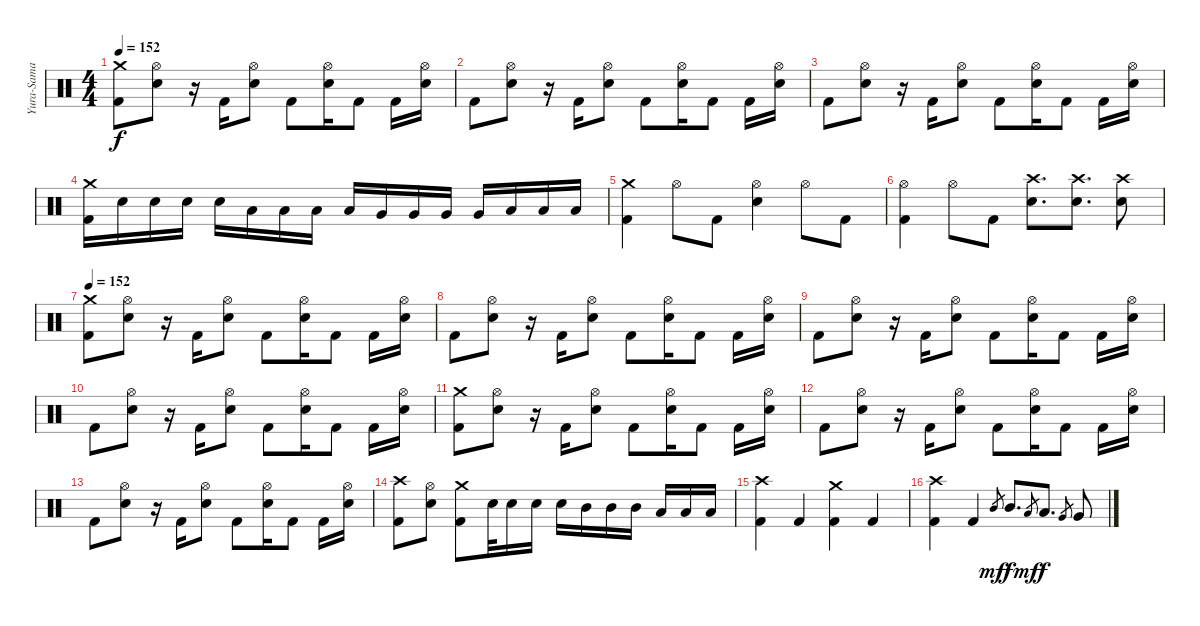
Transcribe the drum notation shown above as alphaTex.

\track ("Yura-Sama" "Yura-Sama") {instrument percussion}
\staff {score}
\articulation defaults
\ts (4 4)
\tempo 152
\clef neutral
\ks c
("Kick (hit) 2" "Crash medium (hit)").8{dy f} ("Electric Snare (hit)" "Hi-Hat (open)").8 r.16 "Kick (hit) 2".16 ("Electric Snare (hit)" "Hi-Hat (open)").8 "Kick (hit) 2".8 ("Electric Snare (hit)" "Hi-Hat (open)").16 "Kick (hit) 2".8 "Kick (hit) 2".16 ("Electric Snare (hit)" "Hi-Hat (open)").16 |
"Kick (hit) 2".8 ("Electric Snare (hit)" "Hi-Hat (open)").8 r.16 "Kick (hit) 2".16 ("Electric Snare (hit)" "Hi-Hat (open)").8 "Kick (hit) 2".8 ("Electric Snare (hit)" "Hi-Hat (open)").16 "Kick (hit) 2".8 "Kick (hit) 2".16 ("Electric Snare (hit)" "Hi-Hat (open)").16 |
"Kick (hit) 2".8 ("Electric Snare (hit)" "Hi-Hat (open)").8 r.16 "Kick (hit) 2".16 ("Electric Snare (hit)" "Hi-Hat (open)").8 "Kick (hit) 2".8 ("Electric Snare (hit)" "Hi-Hat (open)").16 "Kick (hit) 2".8 "Kick (hit) 2".16 ("Electric Snare (hit)" "Hi-Hat (open)").16 |
("Kick (hit) 2" "Crash medium (hit)").16 "Electric Snare (hit)".16 "Electric Snare (hit)".16 "Electric Snare (hit)".16 "Electric Snare (hit)".16 "Low Tom (hit)".16 "Low Tom (hit)".16 "Low Tom (hit)".16 "Low Tom (hit)".16 "Very Low Tom (hit)".16 "Very Low Tom (hit)".16 "Very Low Tom (hit)".16 "Very Low Tom (hit)".16 "Low Floor Tom (hit)".16 "Low Floor Tom (hit)".16 "Low Floor Tom (hit)".16 |
("Kick (hit) 2" "Crash medium (hit)").4 "Hi-Hat (open)".8 "Kick (hit) 2".8 ("Electric Snare (hit)" "Hi-Hat (open)").4 "Hi-Hat (open)".8 "Kick (hit) 2".8 |
("Kick (hit) 2" "Hi-Hat (open)").4 "Hi-Hat (open)".8 "Kick (hit) 2".8 ("Electric Snare (hit)" "Crash high (hit)").8{d} ("Electric Snare (hit)" "Crash high (hit)").8{d} ("Electric Snare (hit)" "Crash high (hit)").8 |
\tempo 152
("Kick (hit) 2" "Crash medium (hit)").8 ("Electric Snare (hit)" "Hi-Hat (open)").8 r.16 "Kick (hit) 2".16 ("Electric Snare (hit)" "Hi-Hat (open)").8 "Kick (hit) 2".8 ("Electric Snare (hit)" "Hi-Hat (open)").16 "Kick (hit) 2".8 "Kick (hit) 2".16 ("Electric Snare (hit)" "Hi-Hat (open)").16 |
"Kick (hit) 2".8 ("Electric Snare (hit)" "Hi-Hat (open)").8 r.16 "Kick (hit) 2".16 ("Electric Snare (hit)" "Hi-Hat (open)").8 "Kick (hit) 2".8 ("Electric Snare (hit)" "Hi-Hat (open)").16 "Kick (hit) 2".8 "Kick (hit) 2".16 ("Electric Snare (hit)" "Hi-Hat (open)").16 |
"Kick (hit) 2".8 ("Electric Snare (hit)" "Hi-Hat (open)").8 r.16 "Kick (hit) 2".16 ("Electric Snare (hit)" "Hi-Hat (open)").8 "Kick (hit) 2".8 ("Electric Snare (hit)" "Hi-Hat (open)").16 "Kick (hit) 2".8 "Kick (hit) 2".16 ("Electric Snare (hit)" "Hi-Hat (open)").16 |
"Kick (hit) 2".8 ("Electric Snare (hit)" "Hi-Hat (open)").8 r.16 "Kick (hit) 2".16 ("Electric Snare (hit)" "Hi-Hat (open)").8 "Kick (hit) 2".8 ("Electric Snare (hit)" "Hi-Hat (open)").16 "Kick (hit) 2".8 "Kick (hit) 2".16 ("Electric Snare (hit)" "Hi-Hat (open)").16 |
("Kick (hit) 2" "Crash medium (hit)").8 ("Electric Snare (hit)" "Hi-Hat (open)").8 r.16 "Kick (hit) 2".16 ("Electric Snare (hit)" "Hi-Hat (open)").8 "Kick (hit) 2".8 ("Electric Snare (hit)" "Hi-Hat (open)").16 "Kick (hit) 2".8 "Kick (hit) 2".16 ("Electric Snare (hit)" "Hi-Hat (open)").16 |
"Kick (hit) 2".8 ("Electric Snare (hit)" "Hi-Hat (open)").8 r.16 "Kick (hit) 2".16 ("Electric Snare (hit)" "Hi-Hat (open)").8 "Kick (hit) 2".8 ("Electric Snare (hit)" "Hi-Hat (open)").16 "Kick (hit) 2".8 "Kick (hit) 2".16 ("Electric Snare (hit)" "Hi-Hat (open)").16 |
"Kick (hit) 2".8 ("Electric Snare (hit)" "Hi-Hat (open)").8 r.16 "Kick (hit) 2".16 ("Electric Snare (hit)" "Hi-Hat (open)").8 "Kick (hit) 2".8 ("Electric Snare (hit)" "Hi-Hat (open)").16 "Kick (hit) 2".8 "Kick (hit) 2".16 ("Electric Snare (hit)" "Hi-Hat (open)").16 |
("Kick (hit) 2" "Crash high (hit)").8 ("Electric Snare (hit)" "Hi-Hat (open)").8 ("Kick (hit) 2" "Crash medium (hit)").8 "Electric Snare (hit)".32 "Electric Snare (hit)".16 "Electric Snare (hit)".16 "Electric Snare (hit)".16 "Mid Tom (hit)".16 "Mid Tom (hit)".16 "Mid Tom (hit)".16 "Low Tom (hit)".16 "Low Tom (hit)".16 "Low Tom (hit)".16 |
("Kick (hit) 2" "Crash high (hit)").4 "Kick (hit) 2".4 ("Kick (hit) 2" "Crash medium (hit)").4 "Kick (hit) 2".4 |
("Kick (hit) 2" "Crash high (hit)").4 "Kick (hit) 2".4 "Mid Tom (hit)".8{gr dy mf} "Mid Tom (hit)".8{d dy f} "Low Tom (hit)".8{gr dy mf} "Low Tom (hit)".8{d dy f} "Very Low Tom (hit)".8{gr} "Very Low Tom (hit)".8
